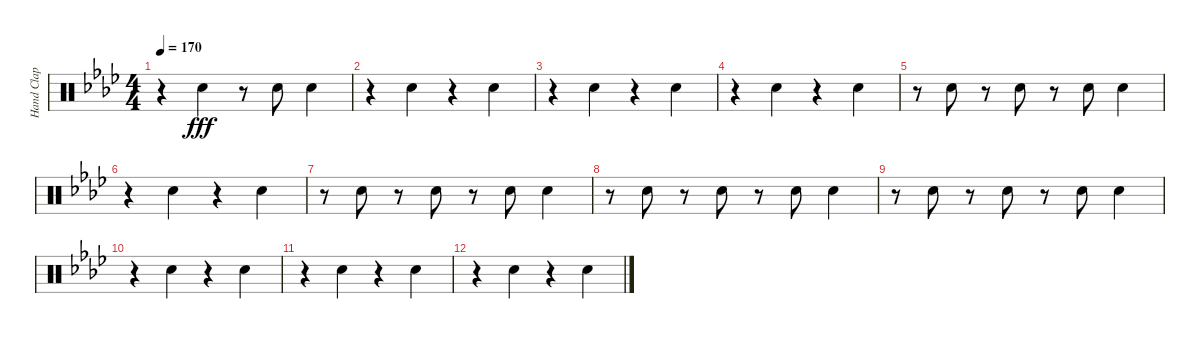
\track ("Hand Clap" "Hand Clap") {instrument percussion}
\staff {score}
\articulation defaults
\ts (4 4)
\tempo 170
\clef neutral
\ks ab
r.4{dy fff} "Hand Clap (hit)".4 r.8 "Hand Clap (hit)".8 "Hand Clap (hit)".4 |
r.4 "Hand Clap (hit)".4 r.4 "Hand Clap (hit)".4 |
r.4 "Hand Clap (hit)".4 r.4 "Hand Clap (hit)".4 |
r.4 "Hand Clap (hit)".4 r.4 "Hand Clap (hit)".4 |
r.8 "Hand Clap (hit)".8 r.8 "Hand Clap (hit)".8 r.8 "Hand Clap (hit)".8 "Hand Clap (hit)".4 |
r.4 "Hand Clap (hit)".4 r.4 "Hand Clap (hit)".4 |
r.8 "Hand Clap (hit)".8 r.8 "Hand Clap (hit)".8 r.8 "Hand Clap (hit)".8 "Hand Clap (hit)".4 |
r.8 "Hand Clap (hit)".8 r.8 "Hand Clap (hit)".8 r.8 "Hand Clap (hit)".8 "Hand Clap (hit)".4 |
r.8 "Hand Clap (hit)".8 r.8 "Hand Clap (hit)".8 r.8 "Hand Clap (hit)".8 "Hand Clap (hit)".4 |
r.4 "Hand Clap (hit)".4 r.4 "Hand Clap (hit)".4 |
r.4 "Hand Clap (hit)".4 r.4 "Hand Clap (hit)".4 |
r.4 "Hand Clap (hit)".4 r.4 "Hand Clap (hit)".4
